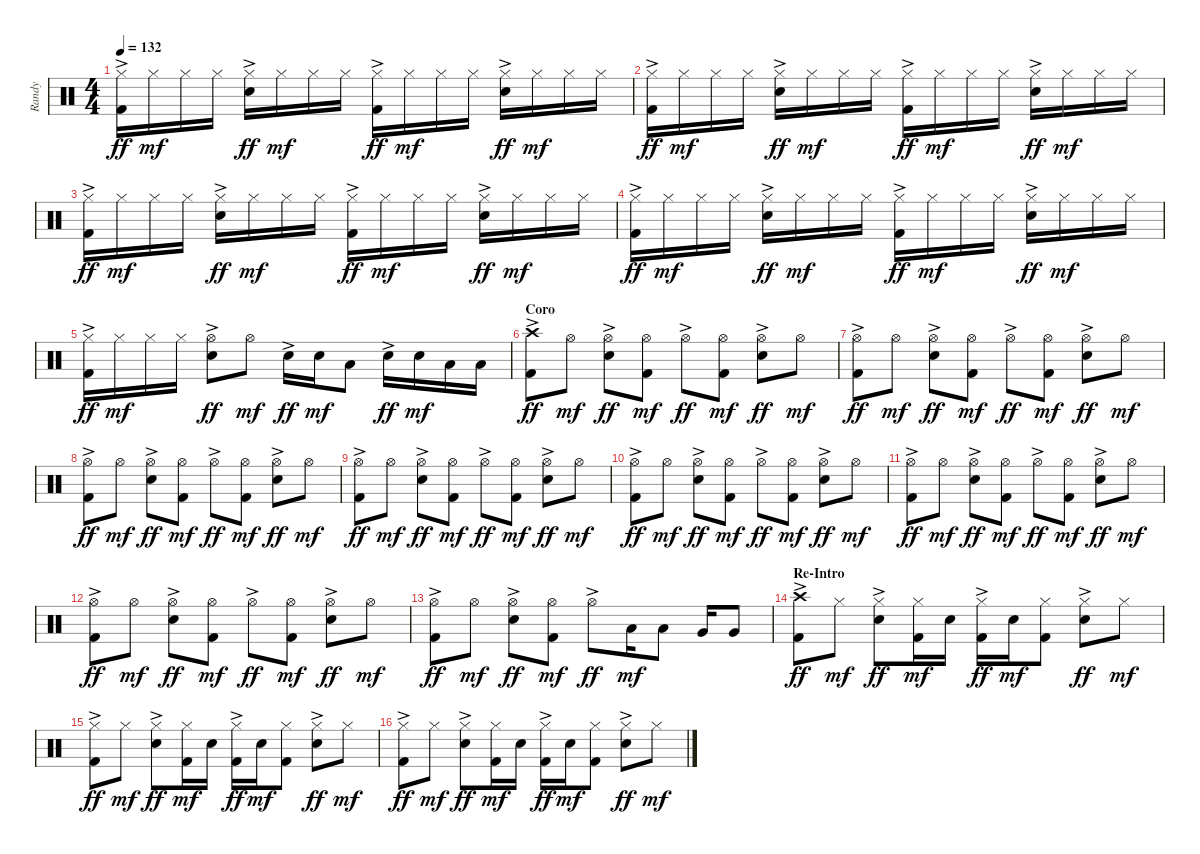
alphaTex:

\track ("Randy" "Randy") {instrument percussion}
\staff {score}
\articulation defaults
\ts (4 4)
\tempo 132
\clef neutral
\ks c
("Hi-Hat (closed)"{ac} "Kick (hit) 2").16{dy ff} "Hi-Hat (closed)".16{dy mf} "Hi-Hat (closed)".16 "Hi-Hat (closed)".16 ("Hi-Hat (closed)"{ac} "Snare (hit) 2").16{dy ff} "Hi-Hat (closed)".16{dy mf} "Hi-Hat (closed)".16 "Hi-Hat (closed)".16 ("Hi-Hat (closed)"{ac} "Kick (hit) 2").16{dy ff} "Hi-Hat (closed)".16{dy mf} "Hi-Hat (closed)".16 "Hi-Hat (closed)".16 ("Hi-Hat (closed)"{ac} "Snare (hit) 2").16{dy ff} "Hi-Hat (closed)".16{dy mf} "Hi-Hat (closed)".16 "Hi-Hat (closed)".16 |
("Hi-Hat (closed)"{ac} "Kick (hit) 2").16{dy ff} "Hi-Hat (closed)".16{dy mf} "Hi-Hat (closed)".16 "Hi-Hat (closed)".16 ("Hi-Hat (closed)"{ac} "Snare (hit) 2").16{dy ff} "Hi-Hat (closed)".16{dy mf} "Hi-Hat (closed)".16 "Hi-Hat (closed)".16 ("Hi-Hat (closed)"{ac} "Kick (hit) 2").16{dy ff} "Hi-Hat (closed)".16{dy mf} "Hi-Hat (closed)".16 "Hi-Hat (closed)".16 ("Hi-Hat (closed)"{ac} "Snare (hit) 2").16{dy ff} "Hi-Hat (closed)".16{dy mf} "Hi-Hat (closed)".16 "Hi-Hat (closed)".16 |
("Hi-Hat (closed)"{ac} "Kick (hit) 2").16{dy ff} "Hi-Hat (closed)".16{dy mf} "Hi-Hat (closed)".16 "Hi-Hat (closed)".16 ("Hi-Hat (closed)"{ac} "Snare (hit) 2").16{dy ff} "Hi-Hat (closed)".16{dy mf} "Hi-Hat (closed)".16 "Hi-Hat (closed)".16 ("Hi-Hat (closed)"{ac} "Kick (hit) 2").16{dy ff} "Hi-Hat (closed)".16{dy mf} "Hi-Hat (closed)".16 "Hi-Hat (closed)".16 ("Hi-Hat (closed)"{ac} "Snare (hit) 2").16{dy ff} "Hi-Hat (closed)".16{dy mf} "Hi-Hat (closed)".16 "Hi-Hat (closed)".16 |
("Hi-Hat (closed)"{ac} "Kick (hit) 2").16{dy ff} "Hi-Hat (closed)".16{dy mf} "Hi-Hat (closed)".16 "Hi-Hat (closed)".16 ("Hi-Hat (closed)"{ac} "Snare (hit) 2").16{dy ff} "Hi-Hat (closed)".16{dy mf} "Hi-Hat (closed)".16 "Hi-Hat (closed)".16 ("Hi-Hat (closed)"{ac} "Kick (hit) 2").16{dy ff} "Hi-Hat (closed)".16{dy mf} "Hi-Hat (closed)".16 "Hi-Hat (closed)".16 ("Hi-Hat (closed)"{ac} "Snare (hit) 2").16{dy ff} "Hi-Hat (closed)".16{dy mf} "Hi-Hat (closed)".16 "Hi-Hat (closed)".16 |
("Hi-Hat (closed)"{ac} "Kick (hit) 2").16{dy ff} "Hi-Hat (closed)".16{dy mf} "Hi-Hat (closed)".16 "Hi-Hat (closed)".16 ("Hi-Hat (open)"{ac} "Snare (hit) 2").8{dy ff} "Hi-Hat (open)".8{dy mf} "Snare (hit) 2"{ac}.16{dy ff} "Snare (hit) 2".16{dy mf} "Low Tom (hit)".8 "Snare (hit) 2"{ac}.16{dy ff} "Snare (hit) 2".16{dy mf} "Low Tom (hit)".16 "Low Tom (hit)".16 |
\section ("" "Coro")
("Crash high (hit)"{ac} "Kick (hit) 2").8{dy ff} "Hi-Hat (open)".8{dy mf} ("Hi-Hat (open)"{ac} "Snare (hit) 2").8{dy ff} ("Hi-Hat (open)" "Kick (hit) 2").8{dy mf} "Hi-Hat (open)"{ac}.8{dy ff} ("Hi-Hat (open)" "Kick (hit) 2").8{dy mf} ("Hi-Hat (open)"{ac} "Snare (hit) 2").8{dy ff} "Hi-Hat (open)".8{dy mf} |
("Hi-Hat (open)"{ac} "Kick (hit) 2").8{dy ff} "Hi-Hat (open)".8{dy mf} ("Hi-Hat (open)"{ac} "Snare (hit) 2").8{dy ff} ("Hi-Hat (open)" "Kick (hit) 2").8{dy mf} "Hi-Hat (open)"{ac}.8{dy ff} ("Hi-Hat (open)" "Kick (hit) 2").8{dy mf} ("Hi-Hat (open)"{ac} "Snare (hit) 2").8{dy ff} "Hi-Hat (open)".8{dy mf} |
("Hi-Hat (open)"{ac} "Kick (hit) 2").8{dy ff} "Hi-Hat (open)".8{dy mf} ("Hi-Hat (open)"{ac} "Snare (hit) 2").8{dy ff} ("Hi-Hat (open)" "Kick (hit) 2").8{dy mf} "Hi-Hat (open)"{ac}.8{dy ff} ("Hi-Hat (open)" "Kick (hit) 2").8{dy mf} ("Hi-Hat (open)"{ac} "Snare (hit) 2").8{dy ff} "Hi-Hat (open)".8{dy mf} |
("Hi-Hat (open)"{ac} "Kick (hit) 2").8{dy ff} "Hi-Hat (open)".8{dy mf} ("Hi-Hat (open)"{ac} "Snare (hit) 2").8{dy ff} ("Hi-Hat (open)" "Kick (hit) 2").8{dy mf} "Hi-Hat (open)"{ac}.8{dy ff} ("Hi-Hat (open)" "Kick (hit) 2").8{dy mf} ("Hi-Hat (open)"{ac} "Snare (hit) 2").8{dy ff} "Hi-Hat (open)".8{dy mf} |
("Hi-Hat (open)"{ac} "Kick (hit) 2").8{dy ff} "Hi-Hat (open)".8{dy mf} ("Hi-Hat (open)"{ac} "Snare (hit) 2").8{dy ff} ("Hi-Hat (open)" "Kick (hit) 2").8{dy mf} "Hi-Hat (open)"{ac}.8{dy ff} ("Hi-Hat (open)" "Kick (hit) 2").8{dy mf} ("Hi-Hat (open)"{ac} "Snare (hit) 2").8{dy ff} "Hi-Hat (open)".8{dy mf} |
("Hi-Hat (open)"{ac} "Kick (hit) 2").8{dy ff} "Hi-Hat (open)".8{dy mf} ("Hi-Hat (open)"{ac} "Snare (hit) 2").8{dy ff} ("Hi-Hat (open)" "Kick (hit) 2").8{dy mf} "Hi-Hat (open)"{ac}.8{dy ff} ("Hi-Hat (open)" "Kick (hit) 2").8{dy mf} ("Hi-Hat (open)"{ac} "Snare (hit) 2").8{dy ff} "Hi-Hat (open)".8{dy mf} |
("Hi-Hat (open)"{ac} "Kick (hit) 2").8{dy ff} "Hi-Hat (open)".8{dy mf} ("Hi-Hat (open)"{ac} "Snare (hit) 2").8{dy ff} ("Hi-Hat (open)" "Kick (hit) 2").8{dy mf} "Hi-Hat (open)"{ac}.8{dy ff} ("Hi-Hat (open)" "Kick (hit) 2").8{dy mf} ("Hi-Hat (open)"{ac} "Snare (hit) 2").8{dy ff} "Hi-Hat (open)".8{dy mf} |
("Hi-Hat (open)"{ac} "Kick (hit) 2").8{dy ff} "Hi-Hat (open)".8{dy mf} ("Hi-Hat (open)"{ac} "Snare (hit) 2").8{dy ff} ("Hi-Hat (open)" "Kick (hit) 2").8{dy mf} "Hi-Hat (open)"{ac}.8{dy ff} "Low Tom (hit)".16{dy mf} "Low Tom (hit)".8 "Very Low Tom (hit)".16 "Very Low Tom (hit)".8 |
\section ("" "Re-Intro")
("Crash high (hit)"{ac} "Kick (hit) 2").8{dy ff} "Hi-Hat (closed)".8{dy mf} ("Hi-Hat (closed)"{ac} "Snare (hit) 2").8{dy ff} ("Hi-Hat (closed)" "Kick (hit) 2").16{dy mf} "Snare (hit) 2".16 ("Hi-Hat (closed)"{ac} "Kick (hit) 2").16{dy ff} "Snare (hit) 2".16{dy mf} ("Hi-Hat (closed)" "Kick (hit) 2").8 ("Hi-Hat (closed)"{ac} "Snare (hit) 2").8{dy ff} "Hi-Hat (closed)".8{dy mf} |
("Hi-Hat (closed)"{ac} "Kick (hit) 2").8{dy ff} "Hi-Hat (closed)".8{dy mf} ("Hi-Hat (closed)"{ac} "Snare (hit) 2").8{dy ff} ("Hi-Hat (closed)" "Kick (hit) 2").16{dy mf} "Snare (hit) 2".16 ("Hi-Hat (closed)"{ac} "Kick (hit) 2").16{dy ff} "Snare (hit) 2".16{dy mf} ("Hi-Hat (closed)" "Kick (hit) 2").8 ("Hi-Hat (closed)"{ac} "Snare (hit) 2").8{dy ff} "Hi-Hat (closed)".8{dy mf} |
("Hi-Hat (closed)"{ac} "Kick (hit) 2").8{dy ff} "Hi-Hat (closed)".8{dy mf} ("Hi-Hat (closed)"{ac} "Snare (hit) 2").8{dy ff} ("Hi-Hat (closed)" "Kick (hit) 2").16{dy mf} "Snare (hit) 2".16 ("Hi-Hat (closed)"{ac} "Kick (hit) 2").16{dy ff} "Snare (hit) 2".16{dy mf} ("Hi-Hat (closed)" "Kick (hit) 2").8 ("Hi-Hat (closed)"{ac} "Snare (hit) 2").8{dy ff} "Hi-Hat (closed)".8{dy mf}
